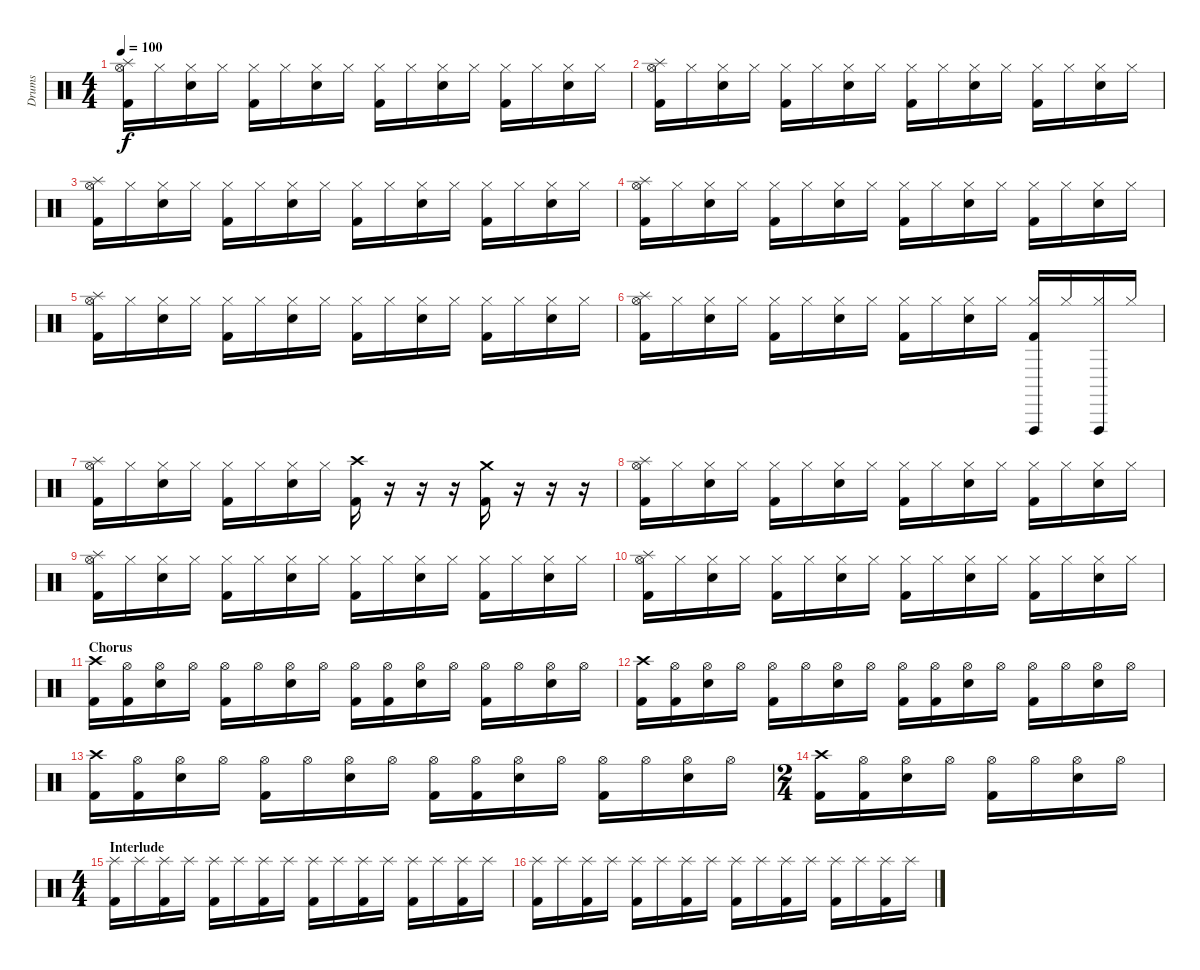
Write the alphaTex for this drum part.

\track ("Drums" "Drums") {instrument percussion}
\staff {score}
\articulation defaults
\ts (4 4)
\tempo 100
\clef neutral
\ks c
("Hi-Hat (open)" "Splash (hit)" "Kick (hit) 2").16{dy f} "Hi-Hat (closed)".16 ("Hi-Hat (closed)" "Snare (hit) 2").16 "Hi-Hat (closed)".16 ("Hi-Hat (closed)" "Kick (hit) 2").16 "Hi-Hat (closed)".16 ("Hi-Hat (closed)" "Snare (hit) 2").16 "Hi-Hat (closed)".16 ("Hi-Hat (closed)" "Kick (hit) 2").16 "Hi-Hat (closed)".16 ("Hi-Hat (closed)" "Snare (hit) 2").16 "Hi-Hat (closed)".16 ("Hi-Hat (closed)" "Kick (hit) 2").16 "Hi-Hat (closed)".16 ("Hi-Hat (closed)" "Snare (hit) 2").16 "Hi-Hat (closed)".16 |
("Hi-Hat (open)" "Splash (hit)" "Kick (hit) 2").16 "Hi-Hat (closed)".16 ("Hi-Hat (closed)" "Snare (hit) 2").16 "Hi-Hat (closed)".16 ("Hi-Hat (closed)" "Kick (hit) 2").16 "Hi-Hat (closed)".16 ("Hi-Hat (closed)" "Snare (hit) 2").16 "Hi-Hat (closed)".16 ("Hi-Hat (closed)" "Kick (hit) 2").16 "Hi-Hat (closed)".16 ("Hi-Hat (closed)" "Snare (hit) 2").16 "Hi-Hat (closed)".16 ("Hi-Hat (closed)" "Kick (hit) 2").16 "Hi-Hat (closed)".16 ("Hi-Hat (closed)" "Snare (hit) 2").16 "Hi-Hat (closed)".16 |
("Hi-Hat (open)" "Splash (hit)" "Kick (hit) 2").16 "Hi-Hat (closed)".16 ("Hi-Hat (closed)" "Snare (hit) 2").16 "Hi-Hat (closed)".16 ("Hi-Hat (closed)" "Kick (hit) 2").16 "Hi-Hat (closed)".16 ("Hi-Hat (closed)" "Snare (hit) 2").16 "Hi-Hat (closed)".16 ("Hi-Hat (closed)" "Kick (hit) 2").16 "Hi-Hat (closed)".16 ("Hi-Hat (closed)" "Snare (hit) 2").16 "Hi-Hat (closed)".16 ("Hi-Hat (closed)" "Kick (hit) 2").16 "Hi-Hat (closed)".16 ("Hi-Hat (closed)" "Snare (hit) 2").16 "Hi-Hat (closed)".16 |
("Hi-Hat (open)" "Splash (hit)" "Kick (hit) 2").16 "Hi-Hat (closed)".16 ("Hi-Hat (closed)" "Snare (hit) 2").16 "Hi-Hat (closed)".16 ("Hi-Hat (closed)" "Kick (hit) 2").16 "Hi-Hat (closed)".16 ("Hi-Hat (closed)" "Snare (hit) 2").16 "Hi-Hat (closed)".16 ("Hi-Hat (closed)" "Kick (hit) 2").16 "Hi-Hat (closed)".16 ("Hi-Hat (closed)" "Snare (hit) 2").16 "Hi-Hat (closed)".16 ("Hi-Hat (closed)" "Kick (hit) 2").16 "Hi-Hat (closed)".16 ("Hi-Hat (closed)" "Snare (hit) 2").16 "Hi-Hat (closed)".16 |
("Hi-Hat (open)" "Splash (hit)" "Kick (hit) 2").16 "Hi-Hat (closed)".16 ("Hi-Hat (closed)" "Snare (hit) 2").16 "Hi-Hat (closed)".16 ("Hi-Hat (closed)" "Kick (hit) 2").16 "Hi-Hat (closed)".16 ("Hi-Hat (closed)" "Snare (hit) 2").16 "Hi-Hat (closed)".16 ("Hi-Hat (closed)" "Kick (hit) 2").16 "Hi-Hat (closed)".16 ("Hi-Hat (closed)" "Snare (hit) 2").16 "Hi-Hat (closed)".16 ("Hi-Hat (closed)" "Kick (hit) 2").16 "Hi-Hat (closed)".16 ("Hi-Hat (closed)" "Snare (hit) 2").16 "Hi-Hat (closed)".16 |
("Hi-Hat (open)" "Splash (hit)" "Kick (hit) 2").16 "Hi-Hat (closed)".16 ("Hi-Hat (closed)" "Snare (hit) 2").16 "Hi-Hat (closed)".16 ("Hi-Hat (closed)" "Kick (hit) 2").16 "Hi-Hat (closed)".16 ("Hi-Hat (closed)" "Snare (hit) 2").16 "Hi-Hat (closed)".16 ("Hi-Hat (closed)" "Kick (hit) 2").16 "Hi-Hat (closed)".16 ("Hi-Hat (closed)" "Snare (hit) 2").16 "Hi-Hat (closed)".16 ("Hi-Hat (closed)" "Vibraslap (hit)" "Kick (hit) 2").16 "Hi-Hat (closed)".16 ("Hi-Hat (closed)" "Vibraslap (hit)").16 "Hi-Hat (closed)".16 |
("Hi-Hat (open)" "Splash (hit)" "Kick (hit) 2").16 "Hi-Hat (closed)".16 ("Hi-Hat (closed)" "Snare (hit) 2").16 "Hi-Hat (closed)".16 ("Hi-Hat (closed)" "Kick (hit) 2").16 "Hi-Hat (closed)".16 ("Hi-Hat (closed)" "Snare (hit) 2").16 "Hi-Hat (closed)".16 ("Crash high (hit)" "Kick (hit) 2").16 r.16 r.16 r.16 ("Crash medium (hit)" "Kick (hit) 2").16 r.16 r.16 r.16 |
("Hi-Hat (open)" "Splash (hit)" "Kick (hit) 2").16 "Hi-Hat (closed)".16 ("Hi-Hat (closed)" "Snare (hit) 2").16 "Hi-Hat (closed)".16 ("Hi-Hat (closed)" "Kick (hit) 2").16 "Hi-Hat (closed)".16 ("Hi-Hat (closed)" "Snare (hit) 2").16 "Hi-Hat (closed)".16 ("Hi-Hat (closed)" "Kick (hit) 2").16 "Hi-Hat (closed)".16 ("Hi-Hat (closed)" "Snare (hit) 2").16 "Hi-Hat (closed)".16 ("Hi-Hat (closed)" "Kick (hit) 2").16 "Hi-Hat (closed)".16 ("Hi-Hat (closed)" "Snare (hit) 2").16 "Hi-Hat (closed)".16 |
("Hi-Hat (open)" "Splash (hit)" "Kick (hit) 2").16 "Hi-Hat (closed)".16 ("Hi-Hat (closed)" "Snare (hit) 2").16 "Hi-Hat (closed)".16 ("Hi-Hat (closed)" "Kick (hit) 2").16 "Hi-Hat (closed)".16 ("Hi-Hat (closed)" "Snare (hit) 2").16 "Hi-Hat (closed)".16 ("Hi-Hat (closed)" "Kick (hit) 2").16 "Hi-Hat (closed)".16 ("Hi-Hat (closed)" "Snare (hit) 2").16 "Hi-Hat (closed)".16 ("Hi-Hat (closed)" "Kick (hit) 2").16 "Hi-Hat (closed)".16 ("Hi-Hat (closed)" "Snare (hit) 2").16 "Hi-Hat (closed)".16 |
("Hi-Hat (open)" "Splash (hit)" "Kick (hit) 2").16 "Hi-Hat (closed)".16 ("Hi-Hat (closed)" "Snare (hit) 2").16 "Hi-Hat (closed)".16 ("Hi-Hat (closed)" "Kick (hit) 2").16 "Hi-Hat (closed)".16 ("Hi-Hat (closed)" "Snare (hit) 2").16 "Hi-Hat (closed)".16 ("Hi-Hat (closed)" "Kick (hit) 2").16 "Hi-Hat (closed)".16 ("Hi-Hat (closed)" "Snare (hit) 2").16 "Hi-Hat (closed)".16 ("Hi-Hat (closed)" "Kick (hit) 2").16 "Hi-Hat (closed)".16 ("Hi-Hat (closed)" "Snare (hit) 2").16 "Hi-Hat (closed)".16 |
\section ("" "Chorus")
("Crash high (hit)" "Kick (hit) 2").16 ("Hi-Hat (open)" "Kick (hit) 2").16 ("Hi-Hat (open)" "Snare (hit) 2").16 "Hi-Hat (open)".16 ("Hi-Hat (open)" "Kick (hit) 2").16 "Hi-Hat (open)".16 ("Hi-Hat (open)" "Snare (hit) 2").16 "Hi-Hat (open)".16 ("Hi-Hat (open)" "Kick (hit) 2").16 ("Hi-Hat (open)" "Kick (hit) 2").16 ("Hi-Hat (open)" "Snare (hit) 2").16 "Hi-Hat (open)".16 ("Hi-Hat (open)" "Kick (hit) 2").16 "Hi-Hat (open)".16 ("Hi-Hat (open)" "Snare (hit) 2").16 "Hi-Hat (open)".16 |
("Crash high (hit)" "Kick (hit) 2").16 ("Hi-Hat (open)" "Kick (hit) 2").16 ("Hi-Hat (open)" "Snare (hit) 2").16 "Hi-Hat (open)".16 ("Hi-Hat (open)" "Kick (hit) 2").16 "Hi-Hat (open)".16 ("Hi-Hat (open)" "Snare (hit) 2").16 "Hi-Hat (open)".16 ("Hi-Hat (open)" "Kick (hit) 2").16 ("Hi-Hat (open)" "Kick (hit) 2").16 ("Hi-Hat (open)" "Snare (hit) 2").16 "Hi-Hat (open)".16 ("Hi-Hat (open)" "Kick (hit) 2").16 "Hi-Hat (open)".16 ("Hi-Hat (open)" "Snare (hit) 2").16 "Hi-Hat (open)".16 |
("Crash high (hit)" "Kick (hit) 2").16 ("Hi-Hat (open)" "Kick (hit) 2").16 ("Hi-Hat (open)" "Snare (hit) 2").16 "Hi-Hat (open)".16 ("Hi-Hat (open)" "Kick (hit) 2").16 "Hi-Hat (open)".16 ("Hi-Hat (open)" "Snare (hit) 2").16 "Hi-Hat (open)".16 ("Hi-Hat (open)" "Kick (hit) 2").16 ("Hi-Hat (open)" "Kick (hit) 2").16 ("Hi-Hat (open)" "Snare (hit) 2").16 "Hi-Hat (open)".16 ("Hi-Hat (open)" "Kick (hit) 2").16 "Hi-Hat (open)".16 ("Hi-Hat (open)" "Snare (hit) 2").16 "Hi-Hat (open)".16 |
\ts (2 4)
("Crash high (hit)" "Kick (hit) 2").16 ("Hi-Hat (open)" "Kick (hit) 2").16 ("Hi-Hat (open)" "Snare (hit) 2").16 "Hi-Hat (open)".16 ("Hi-Hat (open)" "Kick (hit) 2").16 "Hi-Hat (open)".16 ("Hi-Hat (open)" "Snare (hit) 2").16 "Hi-Hat (open)".16 |
\ts (4 4)
\section ("" "Interlude")
("Splash (hit)" "Kick (hit) 2").16 "Splash (hit)".16 ("Splash (hit)" "Kick (hit) 2").16 "Splash (hit)".16 ("Splash (hit)" "Kick (hit) 2").16 "Splash (hit)".16 ("Splash (hit)" "Kick (hit) 2").16 "Splash (hit)".16 ("Splash (hit)" "Kick (hit) 2").16 "Splash (hit)".16 ("Splash (hit)" "Kick (hit) 2").16 "Splash (hit)".16 ("Splash (hit)" "Kick (hit) 2").16 "Splash (hit)".16 ("Splash (hit)" "Kick (hit) 2").16 "Splash (hit)".16 |
("Splash (hit)" "Kick (hit) 2").16 "Splash (hit)".16 ("Splash (hit)" "Kick (hit) 2").16 "Splash (hit)".16 ("Splash (hit)" "Kick (hit) 2").16 "Splash (hit)".16 ("Splash (hit)" "Kick (hit) 2").16 "Splash (hit)".16 ("Splash (hit)" "Kick (hit) 2").16 "Splash (hit)".16 ("Splash (hit)" "Kick (hit) 2").16 "Splash (hit)".16 ("Splash (hit)" "Kick (hit) 2").16 "Splash (hit)".16 ("Splash (hit)" "Kick (hit) 2").16 "Splash (hit)".16
